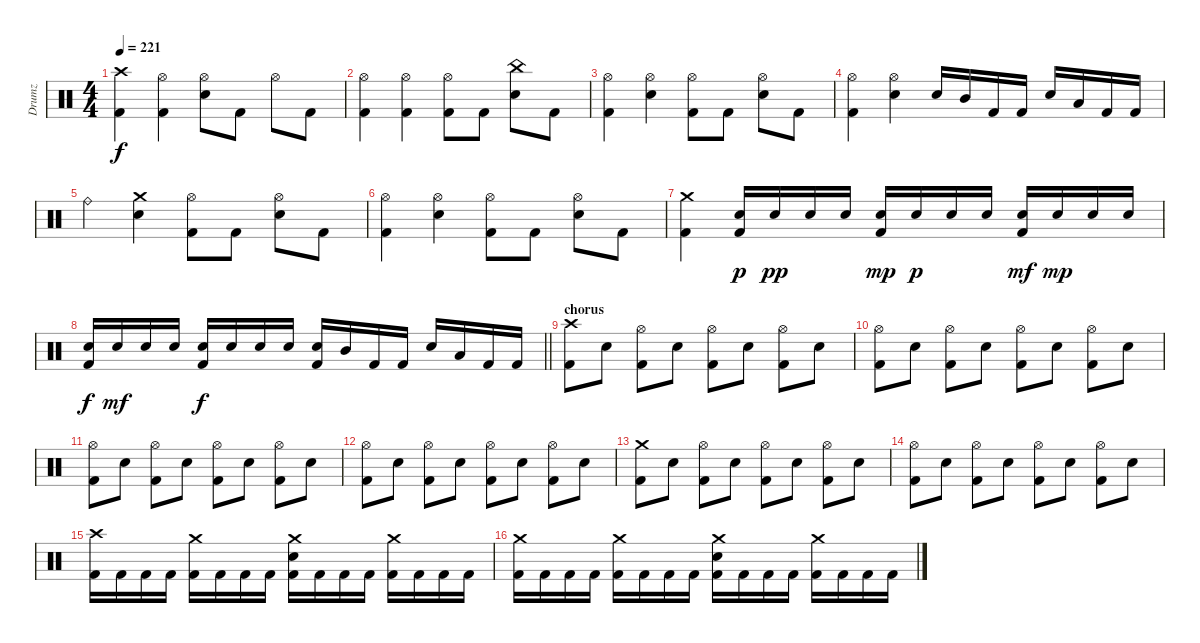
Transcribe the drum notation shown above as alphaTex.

\track ("Drumz" "Drumz") {instrument percussion}
\staff {score}
\articulation defaults
\ts (4 4)
\tempo 221
\clef neutral
\ks c
("Crash high (hit)" "Kick (hit) 2").4{dy f} ("Hi-Hat (open)" "Kick (hit) 2").4 ("Hi-Hat (open)" "Electric Snare (hit)").8 "Kick (hit) 2".8 "Hi-Hat (open)".8 "Kick (hit) 2".8 |
("Hi-Hat (open)" "Kick (hit) 2").4 ("Hi-Hat (open)" "Kick (hit) 2").4 ("Hi-Hat (open)" "Kick (hit) 2").8 "Kick (hit) 2".8 ("China (hit)" "Electric Snare (hit)").8 "Kick (hit) 2".8 |
("Hi-Hat (open)" "Kick (hit) 2").4 ("Hi-Hat (open)" "Electric Snare (hit)").4 ("Hi-Hat (open)" "Kick (hit) 2").8 "Kick (hit) 2".8 ("Hi-Hat (open)" "Electric Snare (hit)").8 "Kick (hit) 2".8 |
("Hi-Hat (open)" "Kick (hit) 2").4 ("Hi-Hat (open)" "Electric Snare (hit)").4 "Electric Snare (hit)".16 "Mid Tom (hit)".16 "Kick (hit) 2".16 "Kick (hit) 2".16 "Electric Snare (hit)".16 "Low Tom (hit)".16 "Kick (hit) 2".16 "Kick (hit) 2".16 |
"Ride (bell)".4 ("Crash medium (hit)" "Electric Snare (hit)").4 ("Hi-Hat (open)" "Kick (hit) 2").8 "Kick (hit) 2".8 ("Hi-Hat (open)" "Electric Snare (hit)").8 "Kick (hit) 2".8 |
("Hi-Hat (open)" "Kick (hit) 2").4 ("Hi-Hat (open)" "Electric Snare (hit)").4 ("Hi-Hat (open)" "Kick (hit) 2").8 "Kick (hit) 2".8 ("Hi-Hat (open)" "Electric Snare (hit)").8 "Kick (hit) 2".8 |
("Crash medium (hit)" "Kick (hit) 2").4 ("Electric Snare (hit)" "Kick (hit) 2").16{dy p} "Electric Snare (hit)".16{dy pp} "Electric Snare (hit)".16 "Electric Snare (hit)".16 ("Electric Snare (hit)" "Kick (hit) 2").16{dy mp} "Electric Snare (hit)".16{dy p} "Electric Snare (hit)".16 "Electric Snare (hit)".16 ("Electric Snare (hit)" "Kick (hit) 2").16{dy mf} "Electric Snare (hit)".16{dy mp} "Electric Snare (hit)".16 "Electric Snare (hit)".16 |
\barLineRight lightlight
("Electric Snare (hit)" "Kick (hit) 2").16{dy f} "Electric Snare (hit)".16{dy mf} "Electric Snare (hit)".16 "Electric Snare (hit)".16 ("Electric Snare (hit)" "Kick (hit) 2").16{dy f} "Electric Snare (hit)".16 "Electric Snare (hit)".16 "Electric Snare (hit)".16 ("Electric Snare (hit)" "Kick (hit) 2").16 "Mid Tom (hit)".16 "Kick (hit) 2".16 "Kick (hit) 2".16 "Electric Snare (hit)".16 "Low Tom (hit)".16 "Kick (hit) 2".16 "Kick (hit) 2".16 |
\section ("" "chorus")
("Crash high (hit)" "Kick (hit) 2").8 "Electric Snare (hit)".8 ("Hi-Hat (open)" "Kick (hit) 2").8 "Electric Snare (hit)".8 ("Hi-Hat (open)" "Kick (hit) 2").8 "Electric Snare (hit)".8 ("Hi-Hat (open)" "Kick (hit) 2").8 "Electric Snare (hit)".8 |
("Hi-Hat (open)" "Kick (hit) 2").8 "Electric Snare (hit)".8 ("Hi-Hat (open)" "Kick (hit) 2").8 "Electric Snare (hit)".8 ("Hi-Hat (open)" "Kick (hit) 2").8 "Electric Snare (hit)".8 ("Hi-Hat (open)" "Kick (hit) 2").8 "Electric Snare (hit)".8 |
("Hi-Hat (open)" "Kick (hit) 2").8 "Electric Snare (hit)".8 ("Hi-Hat (open)" "Kick (hit) 2").8 "Electric Snare (hit)".8 ("Hi-Hat (open)" "Kick (hit) 2").8 "Electric Snare (hit)".8 ("Hi-Hat (open)" "Kick (hit) 2").8 "Electric Snare (hit)".8 |
("Hi-Hat (open)" "Kick (hit) 2").8 "Electric Snare (hit)".8 ("Hi-Hat (open)" "Kick (hit) 2").8 "Electric Snare (hit)".8 ("Hi-Hat (open)" "Kick (hit) 2").8 "Electric Snare (hit)".8 ("Hi-Hat (open)" "Kick (hit) 2").8 "Electric Snare (hit)".8 |
("Crash medium (hit)" "Kick (hit) 2").8 "Electric Snare (hit)".8 ("Hi-Hat (open)" "Kick (hit) 2").8 "Electric Snare (hit)".8 ("Hi-Hat (open)" "Kick (hit) 2").8 "Electric Snare (hit)".8 ("Hi-Hat (open)" "Kick (hit) 2").8 "Electric Snare (hit)".8 |
("Hi-Hat (open)" "Kick (hit) 2").8 "Electric Snare (hit)".8 ("Hi-Hat (open)" "Kick (hit) 2").8 "Electric Snare (hit)".8 ("Hi-Hat (open)" "Kick (hit) 2").8 "Electric Snare (hit)".8 ("Hi-Hat (open)" "Kick (hit) 2").8 "Electric Snare (hit)".8 |
("Crash high (hit)" "Kick (hit) 2").16 "Kick (hit) 2".16 "Kick (hit) 2".16 "Kick (hit) 2".16 ("Crash medium (hit)" "Kick (hit) 2").16 "Kick (hit) 2".16 "Kick (hit) 2".16 "Kick (hit) 2".16 ("Crash medium (hit)" "Electric Snare (hit)" "Kick (hit) 2").16 "Kick (hit) 2".16 "Kick (hit) 2".16 "Kick (hit) 2".16 ("Crash medium (hit)" "Kick (hit) 2").16 "Kick (hit) 2".16 "Kick (hit) 2".16 "Kick (hit) 2".16 |
("Crash medium (hit)" "Kick (hit) 2").16 "Kick (hit) 2".16 "Kick (hit) 2".16 "Kick (hit) 2".16 ("Crash medium (hit)" "Kick (hit) 2").16 "Kick (hit) 2".16 "Kick (hit) 2".16 "Kick (hit) 2".16 ("Crash medium (hit)" "Electric Snare (hit)" "Kick (hit) 2").16 "Kick (hit) 2".16 "Kick (hit) 2".16 "Kick (hit) 2".16 ("Crash medium (hit)" "Kick (hit) 2").16 "Kick (hit) 2".16 "Kick (hit) 2".16 "Kick (hit) 2".16
